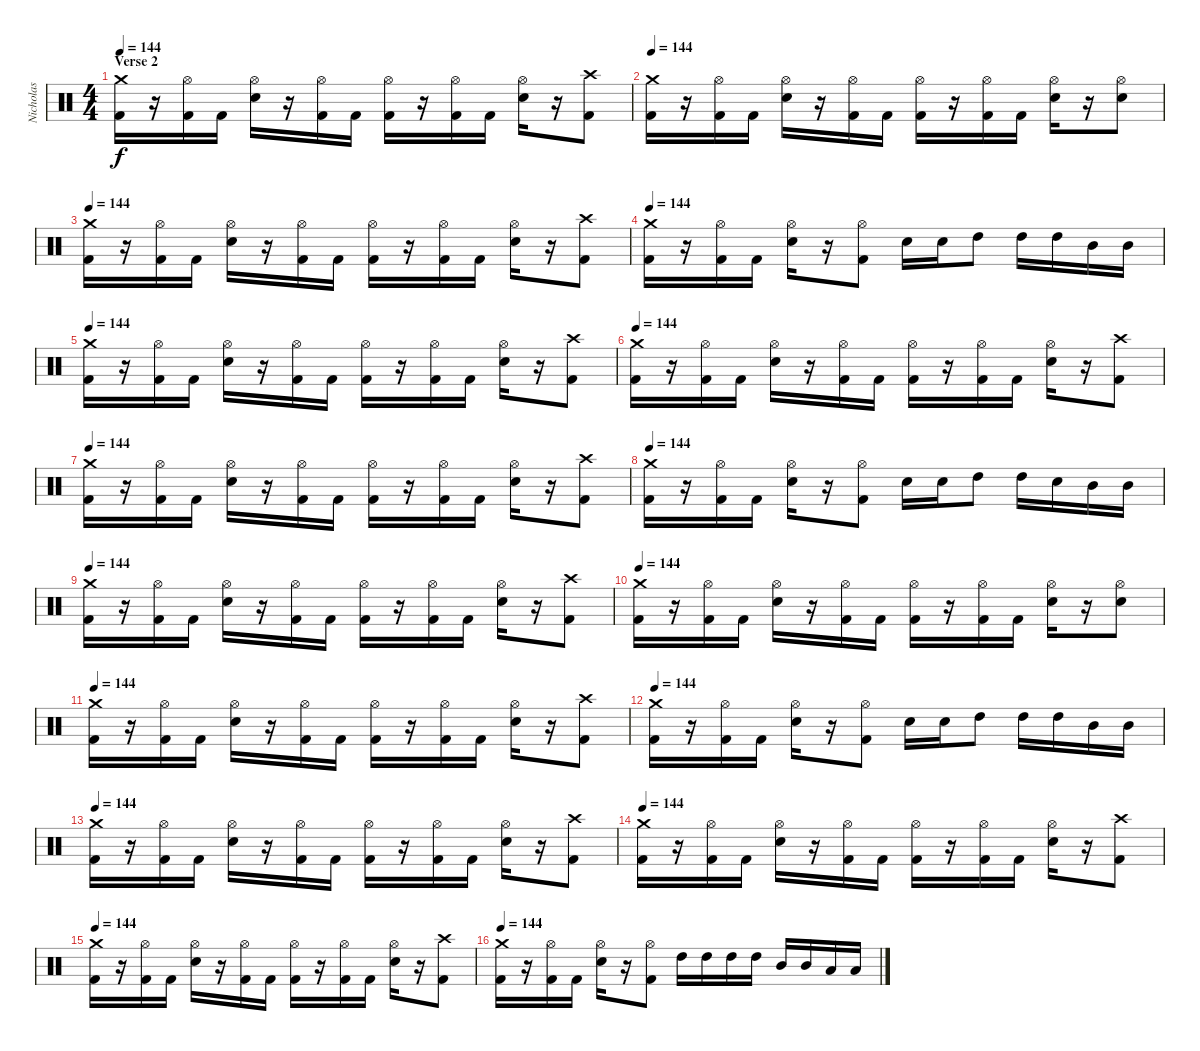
\track ("Nicholas" "Nicholas") {instrument percussion}
\staff {score}
\articulation defaults
\ts (4 4)
\section ("" "Verse 2")
\tempo 144
\clef neutral
\ks c
("Crash medium (hit)" "Kick (hit) 2").16{dy f} r.16 ("Hi-Hat (open)" "Kick (hit) 2").16 "Kick (hit) 2".16 ("Hi-Hat (open)" "Snare (hit) 2").16 r.16 ("Hi-Hat (open)" "Kick (hit) 2").16 "Kick (hit) 2".16 ("Hi-Hat (open)" "Kick (hit) 2").16 r.16 ("Hi-Hat (open)" "Kick (hit) 2").16 "Kick (hit) 2".16 ("Hi-Hat (open)" "Snare (hit) 2").16 r.16 ("Crash high (hit)" "Kick (hit) 2").8 |
\tempo 144
("Crash medium (hit)" "Kick (hit) 2").16 r.16 ("Hi-Hat (open)" "Kick (hit) 2").16 "Kick (hit) 2".16 ("Hi-Hat (open)" "Snare (hit) 2").16 r.16 ("Hi-Hat (open)" "Kick (hit) 2").16 "Kick (hit) 2".16 ("Hi-Hat (open)" "Kick (hit) 2").16 r.16 ("Hi-Hat (open)" "Kick (hit) 2").16 "Kick (hit) 2".16 ("Hi-Hat (open)" "Snare (hit) 2").16 r.16 ("Hi-Hat (open)" "Snare (hit) 2").8 |
\tempo 144
("Crash medium (hit)" "Kick (hit) 2").16 r.16 ("Hi-Hat (open)" "Kick (hit) 2").16 "Kick (hit) 2".16 ("Hi-Hat (open)" "Snare (hit) 2").16 r.16 ("Hi-Hat (open)" "Kick (hit) 2").16 "Kick (hit) 2".16 ("Hi-Hat (open)" "Kick (hit) 2").16 r.16 ("Hi-Hat (open)" "Kick (hit) 2").16 "Kick (hit) 2".16 ("Hi-Hat (open)" "Snare (hit) 2").16 r.16 ("Crash high (hit)" "Kick (hit) 2").8 |
\tempo 144
("Crash medium (hit)" "Kick (hit) 2").16 r.16 ("Hi-Hat (open)" "Kick (hit) 2").16 "Kick (hit) 2".16 ("Hi-Hat (open)" "Snare (hit) 2").16 r.16 ("Hi-Hat (open)" "Kick (hit) 2").8 "Snare (hit) 2".16 "Snare (hit) 2".16 "High Tom (hit)".8 "High Tom (hit)".16 "High Tom (hit)".16 "Mid Tom (hit)".16 "Mid Tom (hit)".16 |
\tempo 144
("Crash medium (hit)" "Kick (hit) 2").16 r.16 ("Hi-Hat (open)" "Kick (hit) 2").16 "Kick (hit) 2".16 ("Hi-Hat (open)" "Snare (hit) 2").16 r.16 ("Hi-Hat (open)" "Kick (hit) 2").16 "Kick (hit) 2".16 ("Hi-Hat (open)" "Kick (hit) 2").16 r.16 ("Hi-Hat (open)" "Kick (hit) 2").16 "Kick (hit) 2".16 ("Hi-Hat (open)" "Snare (hit) 2").16 r.16 ("Crash high (hit)" "Kick (hit) 2").8 |
\tempo 144
("Crash medium (hit)" "Kick (hit) 2").16 r.16 ("Hi-Hat (open)" "Kick (hit) 2").16 "Kick (hit) 2".16 ("Hi-Hat (open)" "Snare (hit) 2").16 r.16 ("Hi-Hat (open)" "Kick (hit) 2").16 "Kick (hit) 2".16 ("Hi-Hat (open)" "Kick (hit) 2").16 r.16 ("Hi-Hat (open)" "Kick (hit) 2").16 "Kick (hit) 2".16 ("Hi-Hat (open)" "Snare (hit) 2").16 r.16 ("Crash high (hit)" "Kick (hit) 2").8 |
\tempo 144
("Crash medium (hit)" "Kick (hit) 2").16 r.16 ("Hi-Hat (open)" "Kick (hit) 2").16 "Kick (hit) 2".16 ("Hi-Hat (open)" "Snare (hit) 2").16 r.16 ("Hi-Hat (open)" "Kick (hit) 2").16 "Kick (hit) 2".16 ("Hi-Hat (open)" "Kick (hit) 2").16 r.16 ("Hi-Hat (open)" "Kick (hit) 2").16 "Kick (hit) 2".16 ("Hi-Hat (open)" "Snare (hit) 2").16 r.16 ("Crash high (hit)" "Kick (hit) 2").8 |
\tempo 144
("Crash medium (hit)" "Kick (hit) 2").16 r.16 ("Hi-Hat (open)" "Kick (hit) 2").16 "Kick (hit) 2".16 ("Hi-Hat (open)" "Snare (hit) 2").16 r.16 ("Hi-Hat (open)" "Kick (hit) 2").8 "Snare (hit) 2".16 "Snare (hit) 2".16 "High Tom (hit)".8 "High Tom (hit)".16 "Snare (hit) 2".16 "Mid Tom (hit)".16 "Mid Tom (hit)".16 |
\tempo 144
("Crash medium (hit)" "Kick (hit) 2").16 r.16 ("Hi-Hat (open)" "Kick (hit) 2").16 "Kick (hit) 2".16 ("Hi-Hat (open)" "Snare (hit) 2").16 r.16 ("Hi-Hat (open)" "Kick (hit) 2").16 "Kick (hit) 2".16 ("Hi-Hat (open)" "Kick (hit) 2").16 r.16 ("Hi-Hat (open)" "Kick (hit) 2").16 "Kick (hit) 2".16 ("Hi-Hat (open)" "Snare (hit) 2").16 r.16 ("Crash high (hit)" "Kick (hit) 2").8 |
\tempo 144
("Crash medium (hit)" "Kick (hit) 2").16 r.16 ("Hi-Hat (open)" "Kick (hit) 2").16 "Kick (hit) 2".16 ("Hi-Hat (open)" "Snare (hit) 2").16 r.16 ("Hi-Hat (open)" "Kick (hit) 2").16 "Kick (hit) 2".16 ("Hi-Hat (open)" "Kick (hit) 2").16 r.16 ("Hi-Hat (open)" "Kick (hit) 2").16 "Kick (hit) 2".16 ("Hi-Hat (open)" "Snare (hit) 2").16 r.16 ("Hi-Hat (open)" "Snare (hit) 2").8 |
\tempo 144
("Crash medium (hit)" "Kick (hit) 2").16 r.16 ("Hi-Hat (open)" "Kick (hit) 2").16 "Kick (hit) 2".16 ("Hi-Hat (open)" "Snare (hit) 2").16 r.16 ("Hi-Hat (open)" "Kick (hit) 2").16 "Kick (hit) 2".16 ("Hi-Hat (open)" "Kick (hit) 2").16 r.16 ("Hi-Hat (open)" "Kick (hit) 2").16 "Kick (hit) 2".16 ("Hi-Hat (open)" "Snare (hit) 2").16 r.16 ("Crash high (hit)" "Kick (hit) 2").8 |
\tempo 144
("Crash medium (hit)" "Kick (hit) 2").16 r.16 ("Hi-Hat (open)" "Kick (hit) 2").16 "Kick (hit) 2".16 ("Hi-Hat (open)" "Snare (hit) 2").16 r.16 ("Hi-Hat (open)" "Kick (hit) 2").8 "Snare (hit) 2".16 "Snare (hit) 2".16 "High Tom (hit)".8 "High Tom (hit)".16 "High Tom (hit)".16 "Mid Tom (hit)".16 "Mid Tom (hit)".16 |
\tempo 144
("Crash medium (hit)" "Kick (hit) 2").16 r.16 ("Hi-Hat (open)" "Kick (hit) 2").16 "Kick (hit) 2".16 ("Hi-Hat (open)" "Snare (hit) 2").16 r.16 ("Hi-Hat (open)" "Kick (hit) 2").16 "Kick (hit) 2".16 ("Hi-Hat (open)" "Kick (hit) 2").16 r.16 ("Hi-Hat (open)" "Kick (hit) 2").16 "Kick (hit) 2".16 ("Hi-Hat (open)" "Snare (hit) 2").16 r.16 ("Crash high (hit)" "Kick (hit) 2").8 |
\tempo 144
("Crash medium (hit)" "Kick (hit) 2").16 r.16 ("Hi-Hat (open)" "Kick (hit) 2").16 "Kick (hit) 2".16 ("Hi-Hat (open)" "Snare (hit) 2").16 r.16 ("Hi-Hat (open)" "Kick (hit) 2").16 "Kick (hit) 2".16 ("Hi-Hat (open)" "Kick (hit) 2").16 r.16 ("Hi-Hat (open)" "Kick (hit) 2").16 "Kick (hit) 2".16 ("Hi-Hat (open)" "Snare (hit) 2").16 r.16 ("Crash high (hit)" "Kick (hit) 2").8 |
\tempo 144
("Crash medium (hit)" "Kick (hit) 2").16 r.16 ("Hi-Hat (open)" "Kick (hit) 2").16 "Kick (hit) 2".16 ("Hi-Hat (open)" "Snare (hit) 2").16 r.16 ("Hi-Hat (open)" "Kick (hit) 2").16 "Kick (hit) 2".16 ("Hi-Hat (open)" "Kick (hit) 2").16 r.16 ("Hi-Hat (open)" "Kick (hit) 2").16 "Kick (hit) 2".16 ("Hi-Hat (open)" "Snare (hit) 2").16 r.16 ("Crash high (hit)" "Kick (hit) 2").8 |
\tempo 144
("Crash medium (hit)" "Kick (hit) 2").16 r.16 ("Hi-Hat (open)" "Kick (hit) 2").16 "Kick (hit) 2".16 ("Hi-Hat (open)" "Snare (hit) 2").16 r.16 ("Hi-Hat (open)" "Kick (hit) 2").8 "High Tom (hit)".16 "High Tom (hit)".16 "High Tom (hit)".16 "High Tom (hit)".16 "Mid Tom (hit)".16 "Mid Tom (hit)".16 "Low Tom (hit)".16 "Low Tom (hit)".16
